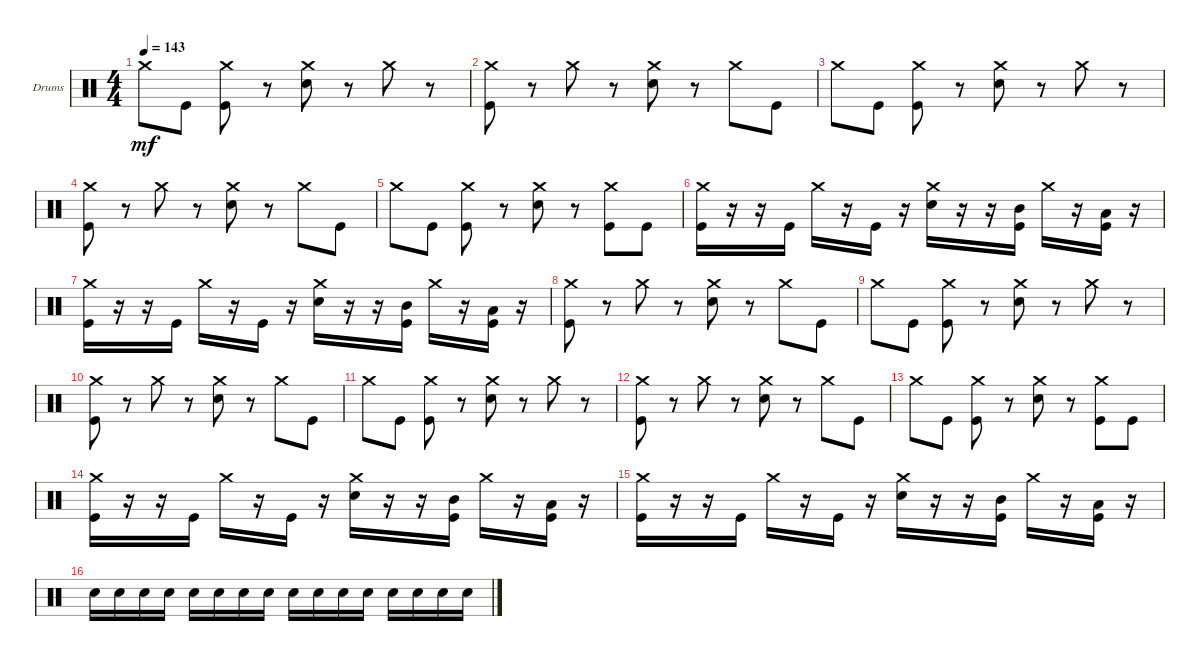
\defaultSystemsLayout 4
\bracketExtendMode groupsimilarinstruments
\firstSystemTrackNameOrientation horizontal
\otherSystemsTrackNameOrientation horizontal
\track ("Drumkit" "Drums") {instrument percussion}
\staff {score}
\articulation defaults
\ts (4 4)
\tempo 143
\clef neutral
\scale
0.333333
\ks c "Crash medium (hit)".8{dy mf} "Kick (hit)".8
("Kick (hit)" "Crash medium (hit)").8 r.8 ("Snare (hit) 2" "Crash medium (hit)").8 r.8 "Crash medium (hit)".8 r.8 |
\scale
0.333333 ("Kick (hit)" "Crash medium (hit)").8 r.8 "Crash medium (hit)".8 r.8 ("Snare (hit) 2" "Crash medium (hit)").8 r.8 "Crash medium (hit)".8 "Kick (hit)".8 |
\scale
0.333333 "Crash medium (hit)".8 "Kick (hit)".8 ("Kick (hit)" "Crash medium (hit)").8 r.8 ("Snare (hit) 2" "Crash medium (hit)").8 r.8 "Crash medium (hit)".8 r.8 |
\scale
0.333333 ("Kick (hit)" "Crash medium (hit)").8 r.8 "Crash medium (hit)".8 r.8 ("Snare (hit) 2" "Crash medium (hit)").8 r.8 "Crash medium (hit)".8 "Kick (hit)".8 |
\scale
0.333333 "Crash medium (hit)".8 "Kick (hit)".8 ("Kick (hit)" "Crash medium (hit)").8 r.8 ("Snare (hit) 2" "Crash medium (hit)").8 r.8 ("Crash medium (hit)" "Kick (hit)").8 "Kick (hit)".8 |
\scale
0.333333 ("Kick (hit)" "Crash medium (hit)").16 r.16 r.16 "Kick (hit)".16 "Crash medium (hit)".16 r.16 "Kick (hit)".16 r.16 ("Snare (hit) 2" "Crash medium (hit)").16 r.16 r.16 ("Kick (hit)" "Mid Tom (hit)").16 "Crash medium (hit)".16 r.16 ("Kick (hit)" "Low Tom (hit)").16 r.16 |
\scale
0.333333 ("Kick (hit)" "Crash medium (hit)").16 r.16 r.16 "Kick (hit)".16 "Crash medium (hit)".16 r.16 "Kick (hit)".16 r.16 ("Snare (hit) 2" "Crash medium (hit)").16 r.16 r.16 ("Kick (hit)" "Mid Tom (hit)").16 "Crash medium (hit)".16 r.16 ("Kick (hit)" "Low Tom (hit)").16 r.16 |
\scale
0.333333 ("Kick (hit)" "Crash medium (hit)").8 r.8 "Crash medium (hit)".8 r.8 ("Snare (hit) 2" "Crash medium (hit)").8 r.8 "Crash medium (hit)".8 "Kick (hit)".8 |
\scale
0.333333 "Crash medium (hit)".8 "Kick (hit)".8 ("Kick (hit)" "Crash medium (hit)").8 r.8 ("Snare (hit) 2" "Crash medium (hit)").8 r.8 "Crash medium (hit)".8 r.8 |
\scale
0.333333 ("Kick (hit)" "Crash medium (hit)").8 r.8 "Crash medium (hit)".8 r.8 ("Snare (hit) 2" "Crash medium (hit)").8 r.8 "Crash medium (hit)".8 "Kick (hit)".8 |
\scale
0.333333 "Crash medium (hit)".8 "Kick (hit)".8 ("Kick (hit)" "Crash medium (hit)").8 r.8 ("Snare (hit) 2" "Crash medium (hit)").8 r.8 "Crash medium (hit)".8 r.8 |
\scale
0.333333 ("Kick (hit)" "Crash medium (hit)").8 r.8 "Crash medium (hit)".8 r.8 ("Snare (hit) 2" "Crash medium (hit)").8 r.8 "Crash medium (hit)".8 "Kick (hit)".8 |
\scale
0.333333 "Crash medium (hit)".8 "Kick (hit)".8 ("Kick (hit)" "Crash medium (hit)").8 r.8 ("Snare (hit) 2" "Crash medium (hit)").8 r.8 ("Crash medium (hit)" "Kick (hit)").8 "Kick (hit)".8 |
\scale
0.333333 ("Kick (hit)" "Crash medium (hit)").16 r.16 r.16 "Kick (hit)".16 "Crash medium (hit)".16 r.16 "Kick (hit)".16 r.16 ("Snare (hit) 2" "Crash medium (hit)").16 r.16 r.16 ("Kick (hit)" "Mid Tom (hit)").16 "Crash medium (hit)".16 r.16 ("Kick (hit)" "Low Tom (hit)").16 r.16 |
\scale
0.333333 ("Kick (hit)" "Crash medium (hit)").16 r.16 r.16 "Kick (hit)".16 "Crash medium (hit)".16 r.16 "Kick (hit)".16 r.16 ("Snare (hit) 2" "Crash medium (hit)").16 r.16 r.16 ("Kick (hit)" "Mid Tom (hit)").16 "Crash medium (hit)".16 r.16 ("Kick (hit)" "Low Tom (hit)").16 r.16 |
\scale
0.333333 "Snare (hit) 2".16 "Snare (hit) 2".16 "Snare (hit) 2".16 "Snare (hit) 2".16 "Snare (hit) 2".16 "Snare (hit) 2".16 "Snare (hit) 2".16 "Snare (hit) 2".16 "Snare (hit) 2".16 "Snare (hit) 2".16 "Snare (hit) 2".16 "Snare (hit) 2".16 "Snare (hit) 2".16 "Snare (hit) 2".16 "Snare (hit) 2".16 "Snare (hit) 2".16
